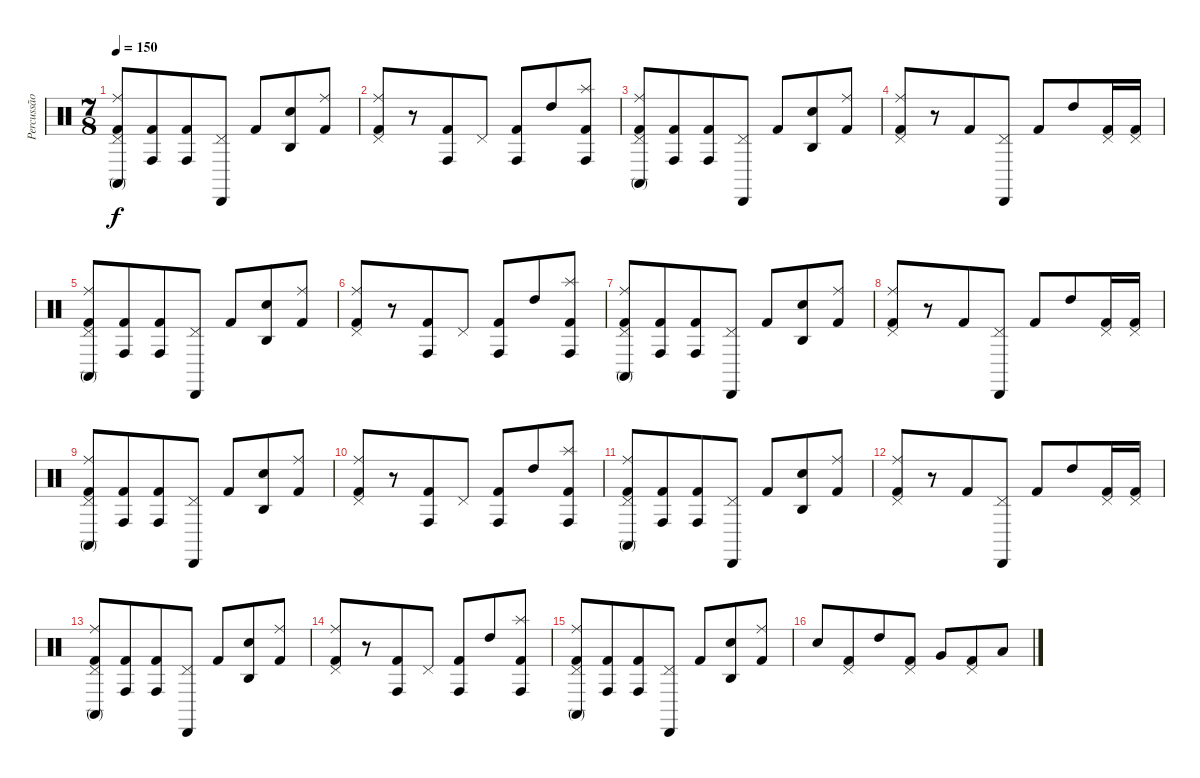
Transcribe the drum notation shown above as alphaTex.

\track ("Percussão" "Percussão") {instrument percussion}
\staff {score}
\articulation defaults
\ts (7 8)
\tempo 150
\clef neutral
\ks c
("Kick (hit) 2" "Conga high (mute)" "Pedal Hi-Hat (hit)" "Ride (middle)").8{dy f} ("Kick (hit) 2" "Conga high (hit)").8 ("Kick (hit) 2" "Conga high (hit)").8 ("Cabasa (hit)" "Pedal Hi-Hat (hit)").8 "Kick (hit) 2".8 ("Agogo high (hit)" "Snare (hit) 2").8 ("Kick (hit) 2" "Ride (middle)").8 |
("Kick (hit) 2" "Pedal Hi-Hat (hit)" "Ride (middle)").8 r.8 ("Kick (hit) 2" "Conga high (hit)").8 "Pedal Hi-Hat (hit)".8 ("Kick (hit) 2" "Conga high (hit)").8 "High Tom (hit)".8 ("Kick (hit) 2" "Conga high (hit)" "Splash (hit)").8 |
("Kick (hit) 2" "Conga high (mute)" "Pedal Hi-Hat (hit)" "Ride (middle)").8 ("Kick (hit) 2" "Conga high (hit)").8 ("Kick (hit) 2" "Conga high (hit)").8 ("Cabasa (hit)" "Pedal Hi-Hat (hit)").8 "Kick (hit) 2".8 ("Agogo high (hit)" "Snare (hit) 2").8 ("Kick (hit) 2" "Ride (middle)").8 |
("Kick (hit) 2" "Pedal Hi-Hat (hit)" "Ride (middle)").8 r.8 "Kick (hit) 2".8 ("Cabasa (hit)" "Pedal Hi-Hat (hit)").8 "Kick (hit) 2".8 "High Tom (hit)".8 ("Kick (hit) 2" "Pedal Hi-Hat (hit)").16 ("Kick (hit) 2" "Pedal Hi-Hat (hit)").16 |
("Kick (hit) 2" "Conga high (mute)" "Pedal Hi-Hat (hit)" "Ride (middle)").8 ("Kick (hit) 2" "Conga high (hit)").8 ("Kick (hit) 2" "Conga high (hit)").8 ("Cabasa (hit)" "Pedal Hi-Hat (hit)").8 "Kick (hit) 2".8 ("Agogo high (hit)" "Snare (hit) 2").8 ("Kick (hit) 2" "Ride (middle)").8 |
("Kick (hit) 2" "Pedal Hi-Hat (hit)" "Ride (middle)").8 r.8 ("Kick (hit) 2" "Conga high (hit)").8 "Pedal Hi-Hat (hit)".8 ("Kick (hit) 2" "Conga high (hit)").8 "High Tom (hit)".8 ("Kick (hit) 2" "Conga high (hit)" "Splash (hit)").8 |
("Kick (hit) 2" "Conga high (mute)" "Pedal Hi-Hat (hit)" "Ride (middle)").8 ("Kick (hit) 2" "Conga high (hit)").8 ("Kick (hit) 2" "Conga high (hit)").8 ("Cabasa (hit)" "Pedal Hi-Hat (hit)").8 "Kick (hit) 2".8 ("Agogo high (hit)" "Snare (hit) 2").8 ("Kick (hit) 2" "Ride (middle)").8 |
("Kick (hit) 2" "Pedal Hi-Hat (hit)" "Ride (middle)").8 r.8 "Kick (hit) 2".8 ("Cabasa (hit)" "Pedal Hi-Hat (hit)").8 "Kick (hit) 2".8 "High Tom (hit)".8 ("Kick (hit) 2" "Pedal Hi-Hat (hit)").16 ("Kick (hit) 2" "Pedal Hi-Hat (hit)").16 |
("Kick (hit) 2" "Conga high (mute)" "Pedal Hi-Hat (hit)" "Ride (middle)").8 ("Kick (hit) 2" "Conga high (hit)").8 ("Kick (hit) 2" "Conga high (hit)").8 ("Cabasa (hit)" "Pedal Hi-Hat (hit)").8 "Kick (hit) 2".8 ("Agogo high (hit)" "Snare (hit) 2").8 ("Kick (hit) 2" "Ride (middle)").8 |
("Kick (hit) 2" "Pedal Hi-Hat (hit)" "Ride (middle)").8 r.8 ("Kick (hit) 2" "Conga high (hit)").8 "Pedal Hi-Hat (hit)".8 ("Kick (hit) 2" "Conga high (hit)").8 "High Tom (hit)".8 ("Kick (hit) 2" "Conga high (hit)" "Splash (hit)").8 |
("Kick (hit) 2" "Conga high (mute)" "Pedal Hi-Hat (hit)" "Ride (middle)").8 ("Kick (hit) 2" "Conga high (hit)").8 ("Kick (hit) 2" "Conga high (hit)").8 ("Cabasa (hit)" "Pedal Hi-Hat (hit)").8 "Kick (hit) 2".8 ("Agogo high (hit)" "Snare (hit) 2").8 ("Kick (hit) 2" "Ride (middle)").8 |
("Kick (hit) 2" "Pedal Hi-Hat (hit)" "Ride (middle)").8 r.8 "Kick (hit) 2".8 ("Cabasa (hit)" "Pedal Hi-Hat (hit)").8 "Kick (hit) 2".8 "High Tom (hit)".8 ("Kick (hit) 2" "Pedal Hi-Hat (hit)").16 ("Kick (hit) 2" "Pedal Hi-Hat (hit)").16 |
("Kick (hit) 2" "Conga high (mute)" "Pedal Hi-Hat (hit)" "Ride (middle)").8 ("Kick (hit) 2" "Conga high (hit)").8 ("Kick (hit) 2" "Conga high (hit)").8 ("Cabasa (hit)" "Pedal Hi-Hat (hit)").8 "Kick (hit) 2".8 ("Agogo high (hit)" "Snare (hit) 2").8 ("Kick (hit) 2" "Ride (middle)").8 |
("Kick (hit) 2" "Pedal Hi-Hat (hit)" "Ride (middle)").8 r.8 ("Kick (hit) 2" "Conga high (hit)").8 "Pedal Hi-Hat (hit)".8 ("Kick (hit) 2" "Conga high (hit)").8 "High Tom (hit)".8 ("Kick (hit) 2" "Conga high (hit)" "Splash (hit)").8 |
("Kick (hit) 2" "Conga high (mute)" "Pedal Hi-Hat (hit)" "Ride (middle)").8 ("Kick (hit) 2" "Conga high (hit)").8 ("Kick (hit) 2" "Conga high (hit)").8 ("Cabasa (hit)" "Pedal Hi-Hat (hit)").8 "Kick (hit) 2".8 ("Agogo high (hit)" "Snare (hit) 2").8 ("Kick (hit) 2" "Ride (middle)").8 |
"Snare (hit) 2".8 ("Kick (hit) 2" "Pedal Hi-Hat (hit)").8 "High Tom (hit)".8 ("Kick (hit) 2" "Pedal Hi-Hat (hit)").8 "Very Low Tom (hit)".8 ("Kick (hit) 2" "Pedal Hi-Hat (hit)").8 "Low Tom (hit)".8
